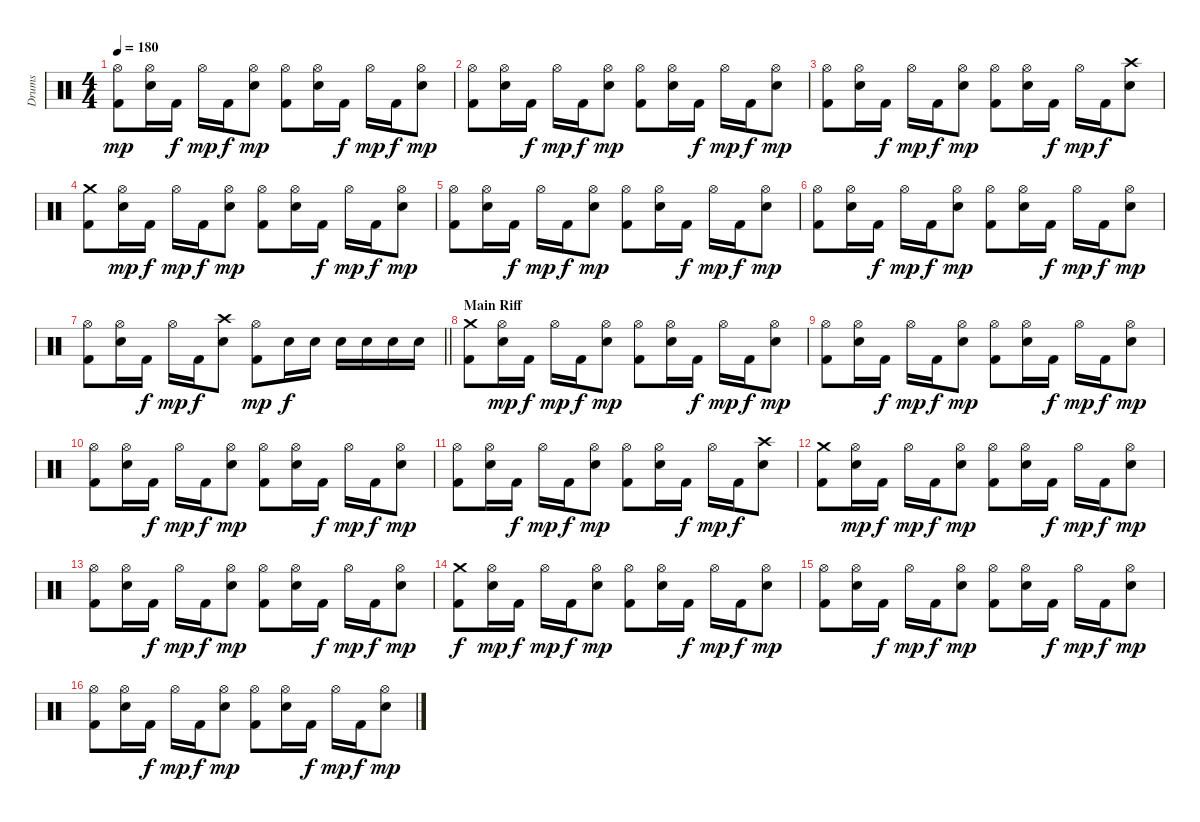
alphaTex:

\track ("Drums" "Drums") {instrument percussion}
\staff {score}
\articulation defaults
\ts (4 4)
\tempo 180
\clef neutral
\ks c
("Hi-Hat (open)" "Kick (hit) 2").8{dy mp} ("Hi-Hat (open)" "Snare (hit) 2").16 "Kick (hit) 2".16{dy f} "Hi-Hat (open)".16{dy mp} "Kick (hit) 2".16{dy f} ("Hi-Hat (open)" "Snare (hit) 2").8{dy mp} ("Hi-Hat (open)" "Kick (hit) 2").8 ("Hi-Hat (open)" "Snare (hit) 2").16 "Kick (hit) 2".16{dy f} "Hi-Hat (open)".16{dy mp} "Kick (hit) 2".16{dy f} ("Hi-Hat (open)" "Snare (hit) 2").8{dy mp} |
("Hi-Hat (open)" "Kick (hit) 2").8 ("Hi-Hat (open)" "Snare (hit) 2").16 "Kick (hit) 2".16{dy f} "Hi-Hat (open)".16{dy mp} "Kick (hit) 2".16{dy f} ("Hi-Hat (open)" "Snare (hit) 2").8{dy mp} ("Hi-Hat (open)" "Kick (hit) 2").8 ("Hi-Hat (open)" "Snare (hit) 2").16 "Kick (hit) 2".16{dy f} "Hi-Hat (open)".16{dy mp} "Kick (hit) 2".16{dy f} ("Hi-Hat (open)" "Snare (hit) 2").8{dy mp} |
("Hi-Hat (open)" "Kick (hit) 2").8 ("Hi-Hat (open)" "Snare (hit) 2").16 "Kick (hit) 2".16{dy f} "Hi-Hat (open)".16{dy mp} "Kick (hit) 2".16{dy f} ("Hi-Hat (open)" "Snare (hit) 2").8{dy mp} ("Hi-Hat (open)" "Kick (hit) 2").8 ("Hi-Hat (open)" "Snare (hit) 2").16 "Kick (hit) 2".16{dy f} "Hi-Hat (open)".16{dy mp} "Kick (hit) 2".16{dy f} ("Crash high (hit)" "Snare (hit) 2").8 |
("Crash medium (hit)" "Kick (hit) 2").8 ("Hi-Hat (open)" "Snare (hit) 2").16{dy mp} "Kick (hit) 2".16{dy f} "Hi-Hat (open)".16{dy mp} "Kick (hit) 2".16{dy f} ("Hi-Hat (open)" "Snare (hit) 2").8{dy mp} ("Hi-Hat (open)" "Kick (hit) 2").8 ("Hi-Hat (open)" "Snare (hit) 2").16 "Kick (hit) 2".16{dy f} "Hi-Hat (open)".16{dy mp} "Kick (hit) 2".16{dy f} ("Hi-Hat (open)" "Snare (hit) 2").8{dy mp} |
("Hi-Hat (open)" "Kick (hit) 2").8 ("Hi-Hat (open)" "Snare (hit) 2").16 "Kick (hit) 2".16{dy f} "Hi-Hat (open)".16{dy mp} "Kick (hit) 2".16{dy f} ("Hi-Hat (open)" "Snare (hit) 2").8{dy mp} ("Hi-Hat (open)" "Kick (hit) 2").8 ("Hi-Hat (open)" "Snare (hit) 2").16 "Kick (hit) 2".16{dy f} "Hi-Hat (open)".16{dy mp} "Kick (hit) 2".16{dy f} ("Hi-Hat (open)" "Snare (hit) 2").8{dy mp} |
("Hi-Hat (open)" "Kick (hit) 2").8 ("Hi-Hat (open)" "Snare (hit) 2").16 "Kick (hit) 2".16{dy f} "Hi-Hat (open)".16{dy mp} "Kick (hit) 2".16{dy f} ("Hi-Hat (open)" "Snare (hit) 2").8{dy mp} ("Hi-Hat (open)" "Kick (hit) 2").8 ("Hi-Hat (open)" "Snare (hit) 2").16 "Kick (hit) 2".16{dy f} "Hi-Hat (open)".16{dy mp} "Kick (hit) 2".16{dy f} ("Hi-Hat (open)" "Snare (hit) 2").8{dy mp} |
\barLineRight lightlight
("Hi-Hat (open)" "Kick (hit) 2").8 ("Hi-Hat (open)" "Snare (hit) 2").16 "Kick (hit) 2".16{dy f} "Hi-Hat (open)".16{dy mp} "Kick (hit) 2".16{dy f} ("Crash high (hit)" "Snare (hit) 2").8 ("Hi-Hat (open)" "Kick (hit) 2").8{dy mp} "Snare (hit) 2".16{dy f} "Snare (hit) 2".16 "Snare (hit) 2".16 "Snare (hit) 2".16 "Snare (hit) 2".16 "Snare (hit) 2".16 |
\section ("" "Main Riff")
("Crash medium (hit)" "Kick (hit) 2").8 ("Hi-Hat (open)" "Snare (hit) 2").16{dy mp} "Kick (hit) 2".16{dy f} "Hi-Hat (open)".16{dy mp} "Kick (hit) 2".16{dy f} ("Hi-Hat (open)" "Snare (hit) 2").8{dy mp} ("Hi-Hat (open)" "Kick (hit) 2").8 ("Hi-Hat (open)" "Snare (hit) 2").16 "Kick (hit) 2".16{dy f} "Hi-Hat (open)".16{dy mp} "Kick (hit) 2".16{dy f} ("Hi-Hat (open)" "Snare (hit) 2").8{dy mp} |
("Hi-Hat (open)" "Kick (hit) 2").8 ("Hi-Hat (open)" "Snare (hit) 2").16 "Kick (hit) 2".16{dy f} "Hi-Hat (open)".16{dy mp} "Kick (hit) 2".16{dy f} ("Hi-Hat (open)" "Snare (hit) 2").8{dy mp} ("Hi-Hat (open)" "Kick (hit) 2").8 ("Hi-Hat (open)" "Snare (hit) 2").16 "Kick (hit) 2".16{dy f} "Hi-Hat (open)".16{dy mp} "Kick (hit) 2".16{dy f} ("Hi-Hat (open)" "Snare (hit) 2").8{dy mp} |
("Hi-Hat (open)" "Kick (hit) 2").8 ("Hi-Hat (open)" "Snare (hit) 2").16 "Kick (hit) 2".16{dy f} "Hi-Hat (open)".16{dy mp} "Kick (hit) 2".16{dy f} ("Hi-Hat (open)" "Snare (hit) 2").8{dy mp} ("Hi-Hat (open)" "Kick (hit) 2").8 ("Hi-Hat (open)" "Snare (hit) 2").16 "Kick (hit) 2".16{dy f} "Hi-Hat (open)".16{dy mp} "Kick (hit) 2".16{dy f} ("Hi-Hat (open)" "Snare (hit) 2").8{dy mp} |
("Hi-Hat (open)" "Kick (hit) 2").8 ("Hi-Hat (open)" "Snare (hit) 2").16 "Kick (hit) 2".16{dy f} "Hi-Hat (open)".16{dy mp} "Kick (hit) 2".16{dy f} ("Hi-Hat (open)" "Snare (hit) 2").8{dy mp} ("Hi-Hat (open)" "Kick (hit) 2").8 ("Hi-Hat (open)" "Snare (hit) 2").16 "Kick (hit) 2".16{dy f} "Hi-Hat (open)".16{dy mp} "Kick (hit) 2".16{dy f} ("Crash high (hit)" "Snare (hit) 2").8 |
("Crash medium (hit)" "Kick (hit) 2").8 ("Hi-Hat (open)" "Snare (hit) 2").16{dy mp} "Kick (hit) 2".16{dy f} "Hi-Hat (open)".16{dy mp} "Kick (hit) 2".16{dy f} ("Hi-Hat (open)" "Snare (hit) 2").8{dy mp} ("Hi-Hat (open)" "Kick (hit) 2").8 ("Hi-Hat (open)" "Snare (hit) 2").16 "Kick (hit) 2".16{dy f} "Hi-Hat (open)".16{dy mp} "Kick (hit) 2".16{dy f} ("Hi-Hat (open)" "Snare (hit) 2").8{dy mp} |
("Hi-Hat (open)" "Kick (hit) 2").8 ("Hi-Hat (open)" "Snare (hit) 2").16 "Kick (hit) 2".16{dy f} "Hi-Hat (open)".16{dy mp} "Kick (hit) 2".16{dy f} ("Hi-Hat (open)" "Snare (hit) 2").8{dy mp} ("Hi-Hat (open)" "Kick (hit) 2").8 ("Hi-Hat (open)" "Snare (hit) 2").16 "Kick (hit) 2".16{dy f} "Hi-Hat (open)".16{dy mp} "Kick (hit) 2".16{dy f} ("Hi-Hat (open)" "Snare (hit) 2").8{dy mp} |
("Crash medium (hit)" "Kick (hit) 2").8{dy f} ("Hi-Hat (open)" "Snare (hit) 2").16{dy mp} "Kick (hit) 2".16{dy f} "Hi-Hat (open)".16{dy mp} "Kick (hit) 2".16{dy f} ("Hi-Hat (open)" "Snare (hit) 2").8{dy mp} ("Hi-Hat (open)" "Kick (hit) 2").8 ("Hi-Hat (open)" "Snare (hit) 2").16 "Kick (hit) 2".16{dy f} "Hi-Hat (open)".16{dy mp} "Kick (hit) 2".16{dy f} ("Hi-Hat (open)" "Snare (hit) 2").8{dy mp} |
("Hi-Hat (open)" "Kick (hit) 2").8 ("Hi-Hat (open)" "Snare (hit) 2").16 "Kick (hit) 2".16{dy f} "Hi-Hat (open)".16{dy mp} "Kick (hit) 2".16{dy f} ("Hi-Hat (open)" "Snare (hit) 2").8{dy mp} ("Hi-Hat (open)" "Kick (hit) 2").8 ("Hi-Hat (open)" "Snare (hit) 2").16 "Kick (hit) 2".16{dy f} "Hi-Hat (open)".16{dy mp} "Kick (hit) 2".16{dy f} ("Hi-Hat (open)" "Snare (hit) 2").8{dy mp} |
("Hi-Hat (open)" "Kick (hit) 2").8 ("Hi-Hat (open)" "Snare (hit) 2").16 "Kick (hit) 2".16{dy f} "Hi-Hat (open)".16{dy mp} "Kick (hit) 2".16{dy f} ("Hi-Hat (open)" "Snare (hit) 2").8{dy mp} ("Hi-Hat (open)" "Kick (hit) 2").8 ("Hi-Hat (open)" "Snare (hit) 2").16 "Kick (hit) 2".16{dy f} "Hi-Hat (open)".16{dy mp} "Kick (hit) 2".16{dy f} ("Hi-Hat (open)" "Snare (hit) 2").8{dy mp}
